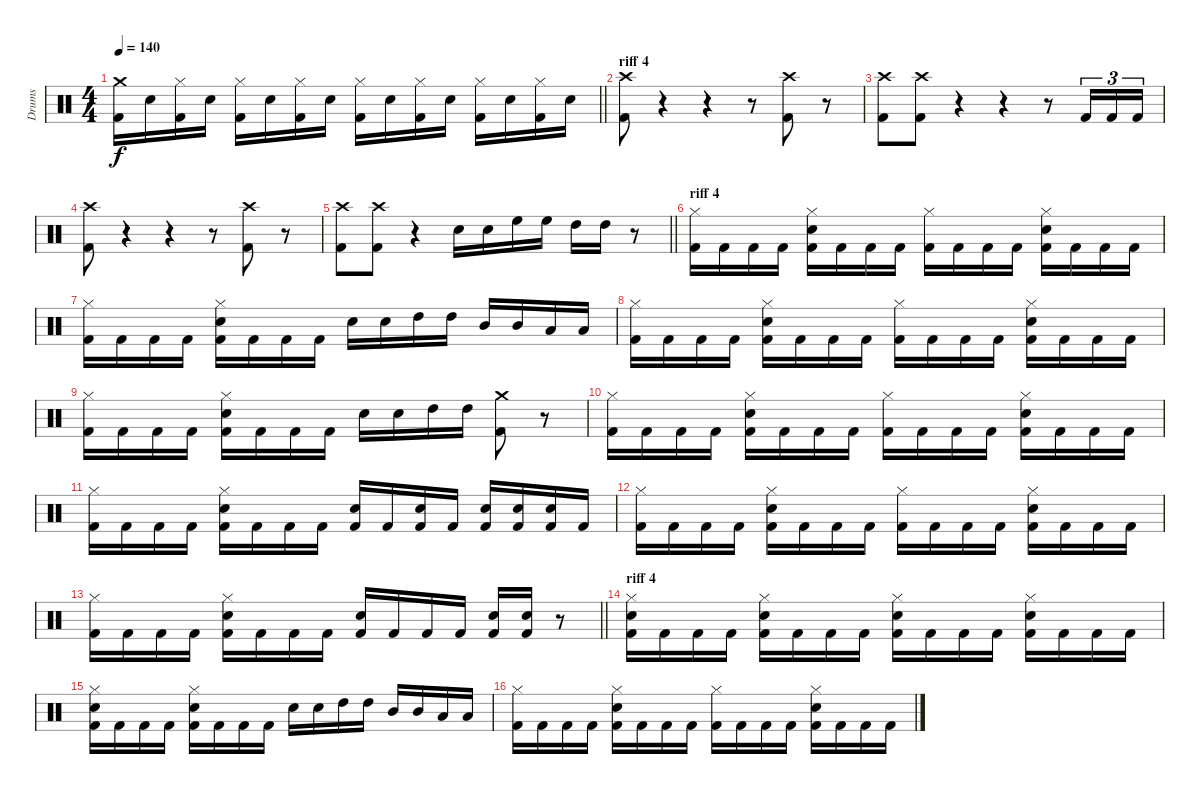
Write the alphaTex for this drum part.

\track ("Drums" "Drums") {instrument percussion}
\staff {score}
\articulation defaults
\ts (4 4)
\tempo 140
\clef neutral
\barLineRight lightlight
\ks c
("Kick (hit) 2" "Crash medium (hit)").16{dy f} "Snare (hit) 2".16 ("Kick (hit) 2" "Hi-Hat (closed)").16 "Snare (hit) 2".16 ("Kick (hit) 2" "Hi-Hat (closed)").16 "Snare (hit) 2".16 ("Kick (hit) 2" "Hi-Hat (closed)").16 "Snare (hit) 2".16 ("Kick (hit) 2" "Hi-Hat (closed)").16 "Snare (hit) 2".16 ("Kick (hit) 2" "Hi-Hat (closed)").16 "Snare (hit) 2".16 ("Kick (hit) 2" "Hi-Hat (closed)").16 "Snare (hit) 2".16 ("Kick (hit) 2" "Hi-Hat (closed)").16 "Snare (hit) 2".16 |
\section ("" "riff 4")
("Kick (hit) 2" "Crash high (hit)").8 r.4 r.4 r.8 ("Kick (hit) 2" "Crash high (hit)").8 r.8 |
("Kick (hit) 2" "Crash high (hit)").8 ("Kick (hit) 2" "Crash high (hit)").8 r.4 r.4 r.8 "Kick (hit) 2".16{tu (3 2)} "Kick (hit) 2".16{tu (3 2)} "Kick (hit) 2".16{tu (3 2)} |
("Kick (hit) 2" "Crash high (hit)").8 r.4 r.4 r.8 ("Kick (hit) 2" "Crash high (hit)").8 r.8 |
\barLineRight lightlight
("Kick (hit) 2" "Crash high (hit)").8 ("Kick (hit) 2" "Crash high (hit)").8 r.4 "Snare (hit) 2".16 "Snare (hit) 2".16 "High Floor Tom (hit)".16 "High Floor Tom (hit)".16 "High Tom (hit)".16 "High Tom (hit)".16 r.8 |
\section ("" "riff 4")
("Kick (hit) 2" "Hi-Hat (closed)").16 "Kick (hit) 2".16 "Kick (hit) 2".16 "Kick (hit) 2".16 ("Kick (hit) 2" "Snare (hit) 2" "Hi-Hat (closed)").16 "Kick (hit) 2".16 "Kick (hit) 2".16 "Kick (hit) 2".16 ("Kick (hit) 2" "Hi-Hat (closed)").16 "Kick (hit) 2".16 "Kick (hit) 2".16 "Kick (hit) 2".16 ("Kick (hit) 2" "Snare (hit) 2" "Hi-Hat (closed)").16 "Kick (hit) 2".16 "Kick (hit) 2".16 "Kick (hit) 2".16 |
("Kick (hit) 2" "Hi-Hat (closed)").16 "Kick (hit) 2".16 "Kick (hit) 2".16 "Kick (hit) 2".16 ("Kick (hit) 2" "Snare (hit) 2" "Hi-Hat (closed)").16 "Kick (hit) 2".16 "Kick (hit) 2".16 "Kick (hit) 2".16 "Snare (hit) 2".16 "Snare (hit) 2".16 "High Tom (hit)".16 "High Tom (hit)".16 "Mid Tom (hit)".16 "Mid Tom (hit)".16 "Low Tom (hit)".16 "Low Tom (hit)".16 |
("Kick (hit) 2" "Hi-Hat (closed)").16 "Kick (hit) 2".16 "Kick (hit) 2".16 "Kick (hit) 2".16 ("Kick (hit) 2" "Snare (hit) 2" "Hi-Hat (closed)").16 "Kick (hit) 2".16 "Kick (hit) 2".16 "Kick (hit) 2".16 ("Kick (hit) 2" "Hi-Hat (closed)").16 "Kick (hit) 2".16 "Kick (hit) 2".16 "Kick (hit) 2".16 ("Kick (hit) 2" "Snare (hit) 2" "Hi-Hat (closed)").16 "Kick (hit) 2".16 "Kick (hit) 2".16 "Kick (hit) 2".16 |
("Kick (hit) 2" "Hi-Hat (closed)").16 "Kick (hit) 2".16 "Kick (hit) 2".16 "Kick (hit) 2".16 ("Kick (hit) 2" "Snare (hit) 2" "Hi-Hat (closed)").16 "Kick (hit) 2".16 "Kick (hit) 2".16 "Kick (hit) 2".16 "Snare (hit) 2".16 "Snare (hit) 2".16 "High Tom (hit)".16 "High Tom (hit)".16 ("Kick (hit) 2" "Crash medium (hit)").8 r.8 |
("Kick (hit) 2" "Hi-Hat (closed)").16 "Kick (hit) 2".16 "Kick (hit) 2".16 "Kick (hit) 2".16 ("Kick (hit) 2" "Snare (hit) 2" "Hi-Hat (closed)").16 "Kick (hit) 2".16 "Kick (hit) 2".16 "Kick (hit) 2".16 ("Kick (hit) 2" "Hi-Hat (closed)").16 "Kick (hit) 2".16 "Kick (hit) 2".16 "Kick (hit) 2".16 ("Kick (hit) 2" "Snare (hit) 2" "Hi-Hat (closed)").16 "Kick (hit) 2".16 "Kick (hit) 2".16 "Kick (hit) 2".16 |
("Kick (hit) 2" "Hi-Hat (closed)").16 "Kick (hit) 2".16 "Kick (hit) 2".16 "Kick (hit) 2".16 ("Kick (hit) 2" "Snare (hit) 2" "Hi-Hat (closed)").16 "Kick (hit) 2".16 "Kick (hit) 2".16 "Kick (hit) 2".16 ("Kick (hit) 2" "Snare (hit) 2").16 "Kick (hit) 2".16 ("Kick (hit) 2" "Snare (hit) 2").16 "Kick (hit) 2".16 ("Kick (hit) 2" "Snare (hit) 2").16 ("Kick (hit) 2" "Snare (hit) 2").16 ("Kick (hit) 2" "Snare (hit) 2").16 "Kick (hit) 2".16 |
("Kick (hit) 2" "Hi-Hat (closed)").16 "Kick (hit) 2".16 "Kick (hit) 2".16 "Kick (hit) 2".16 ("Kick (hit) 2" "Snare (hit) 2" "Hi-Hat (closed)").16 "Kick (hit) 2".16 "Kick (hit) 2".16 "Kick (hit) 2".16 ("Kick (hit) 2" "Hi-Hat (closed)").16 "Kick (hit) 2".16 "Kick (hit) 2".16 "Kick (hit) 2".16 ("Kick (hit) 2" "Snare (hit) 2" "Hi-Hat (closed)").16 "Kick (hit) 2".16 "Kick (hit) 2".16 "Kick (hit) 2".16 |
\barLineRight lightlight
("Kick (hit) 2" "Hi-Hat (closed)").16 "Kick (hit) 2".16 "Kick (hit) 2".16 "Kick (hit) 2".16 ("Kick (hit) 2" "Snare (hit) 2" "Hi-Hat (closed)").16 "Kick (hit) 2".16 "Kick (hit) 2".16 "Kick (hit) 2".16 ("Kick (hit) 2" "Snare (hit) 2").16 "Kick (hit) 2".16 "Kick (hit) 2".16 "Kick (hit) 2".16 ("Kick (hit) 2" "Snare (hit) 2").16 ("Kick (hit) 2" "Snare (hit) 2").16 r.8 |
\section ("" "riff 4")
("Kick (hit) 2" "Snare (hit) 2" "Hi-Hat (closed)").16 "Kick (hit) 2".16 "Kick (hit) 2".16 "Kick (hit) 2".16 ("Kick (hit) 2" "Snare (hit) 2" "Hi-Hat (closed)").16 "Kick (hit) 2".16 "Kick (hit) 2".16 "Kick (hit) 2".16 ("Kick (hit) 2" "Snare (hit) 2" "Hi-Hat (closed)").16 "Kick (hit) 2".16 "Kick (hit) 2".16 "Kick (hit) 2".16 ("Kick (hit) 2" "Snare (hit) 2" "Hi-Hat (closed)").16 "Kick (hit) 2".16 "Kick (hit) 2".16 "Kick (hit) 2".16 |
("Kick (hit) 2" "Snare (hit) 2" "Hi-Hat (closed)").16 "Kick (hit) 2".16 "Kick (hit) 2".16 "Kick (hit) 2".16 ("Kick (hit) 2" "Snare (hit) 2" "Hi-Hat (closed)").16 "Kick (hit) 2".16 "Kick (hit) 2".16 "Kick (hit) 2".16 "Snare (hit) 2".16 "Snare (hit) 2".16 "High Tom (hit)".16 "High Tom (hit)".16 "Mid Tom (hit)".16 "Mid Tom (hit)".16 "Low Tom (hit)".16 "Low Tom (hit)".16 |
("Kick (hit) 2" "Hi-Hat (closed)").16 "Kick (hit) 2".16 "Kick (hit) 2".16 "Kick (hit) 2".16 ("Kick (hit) 2" "Snare (hit) 2" "Hi-Hat (closed)").16 "Kick (hit) 2".16 "Kick (hit) 2".16 "Kick (hit) 2".16 ("Kick (hit) 2" "Hi-Hat (closed)").16 "Kick (hit) 2".16 "Kick (hit) 2".16 "Kick (hit) 2".16 ("Kick (hit) 2" "Snare (hit) 2" "Hi-Hat (closed)").16 "Kick (hit) 2".16 "Kick (hit) 2".16 "Kick (hit) 2".16
